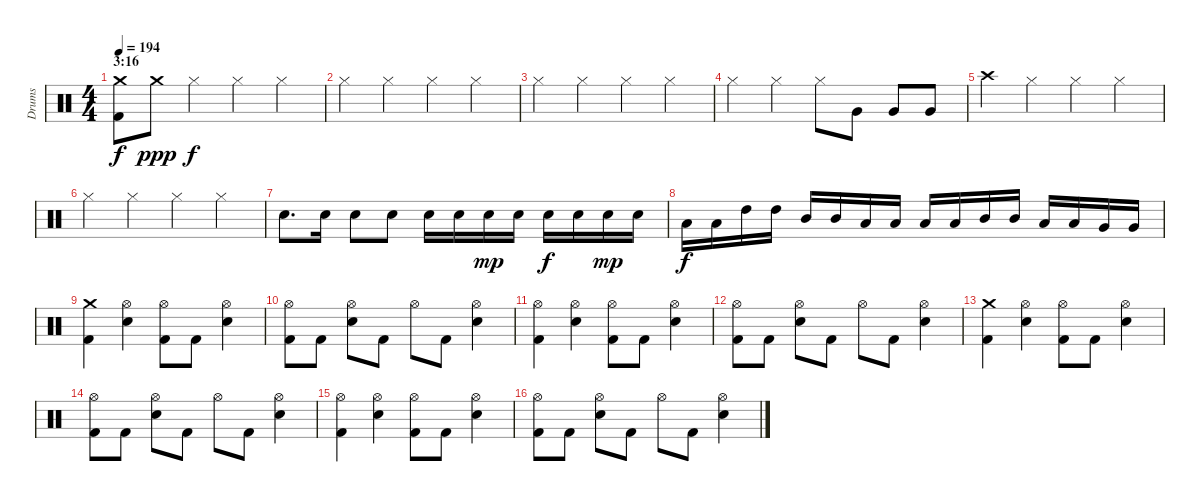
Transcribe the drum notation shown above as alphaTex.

\track ("Drums" "Drums") {instrument percussion}
\staff {score}
\articulation defaults
\ts (4 4)
\section ("" "3:16")
\tempo 194
\clef neutral
\ks c
("Crash medium (hit)" "Kick (hit) 2").8{dy f} "Crash medium (hit)".8{dy ppp} "Hi-Hat (closed)".4{dy f} "Hi-Hat (closed)".4 "Hi-Hat (closed)".4 |
"Hi-Hat (closed)".4 "Hi-Hat (closed)".4 "Hi-Hat (closed)".4 "Hi-Hat (closed)".4 |
"Hi-Hat (closed)".4 "Hi-Hat (closed)".4 "Hi-Hat (closed)".4 "Hi-Hat (closed)".4 |
"Hi-Hat (closed)".4 "Hi-Hat (closed)".4 "Hi-Hat (closed)".8 "Very Low Tom (hit)".8 "Very Low Tom (hit)".8 "Very Low Tom (hit)".8 |
"Crash high (hit)".4 "Hi-Hat (closed)".4 "Hi-Hat (closed)".4 "Hi-Hat (closed)".4 |
"Hi-Hat (closed)".4 "Hi-Hat (closed)".4 "Hi-Hat (closed)".4 "Hi-Hat (closed)".4 |
"Snare (hit) 2".8{d} "Snare (hit) 2".16 "Snare (hit) 2".8 "Snare (hit) 2".8 "Snare (hit) 2".16 "Snare (hit) 2".16 "Snare (hit) 2".16{dy mp} "Snare (hit) 2".16 "Snare (hit) 2".16{dy f} "Snare (hit) 2".16 "Snare (hit) 2".16{dy mp} "Snare (hit) 2".16 |
"Low Tom (hit)".16{dy f} "Low Tom (hit)".16 "High Tom (hit)".16 "High Tom (hit)".16 "Mid Tom (hit)".16 "Mid Tom (hit)".16 "Low Tom (hit)".16 "Low Tom (hit)".16 "Low Tom (hit)".16 "Low Tom (hit)".16 "Mid Tom (hit)".16 "Mid Tom (hit)".16 "Low Tom (hit)".16 "Low Tom (hit)".16 "Very Low Tom (hit)".16 "Very Low Tom (hit)".16 |
("Crash medium (hit)" "Kick (hit) 2").4 ("Hi-Hat (open)" "Snare (hit) 2").4 ("Hi-Hat (open)" "Kick (hit) 2").8 "Kick (hit) 2".8 ("Hi-Hat (open)" "Snare (hit) 2").4 |
("Hi-Hat (open)" "Kick (hit) 2").8 "Kick (hit) 2".8 ("Hi-Hat (open)" "Snare (hit) 2").8 "Kick (hit) 2".8 "Hi-Hat (open)".8 "Kick (hit) 2".8 ("Hi-Hat (open)" "Snare (hit) 2").4 |
("Hi-Hat (open)" "Kick (hit) 2").4 ("Hi-Hat (open)" "Snare (hit) 2").4 ("Hi-Hat (open)" "Kick (hit) 2").8 "Kick (hit) 2".8 ("Hi-Hat (open)" "Snare (hit) 2").4 |
("Hi-Hat (open)" "Kick (hit) 2").8 "Kick (hit) 2".8 ("Hi-Hat (open)" "Snare (hit) 2").8 "Kick (hit) 2".8 "Hi-Hat (open)".8 "Kick (hit) 2".8 ("Hi-Hat (open)" "Snare (hit) 2").4 |
("Crash medium (hit)" "Kick (hit) 2").4 ("Hi-Hat (open)" "Snare (hit) 2").4 ("Hi-Hat (open)" "Kick (hit) 2").8 "Kick (hit) 2".8 ("Hi-Hat (open)" "Snare (hit) 2").4 |
("Hi-Hat (open)" "Kick (hit) 2").8 "Kick (hit) 2".8 ("Hi-Hat (open)" "Snare (hit) 2").8 "Kick (hit) 2".8 "Hi-Hat (open)".8 "Kick (hit) 2".8 ("Hi-Hat (open)" "Snare (hit) 2").4 |
("Hi-Hat (open)" "Kick (hit) 2").4 ("Hi-Hat (open)" "Snare (hit) 2").4 ("Hi-Hat (open)" "Kick (hit) 2").8 "Kick (hit) 2".8 ("Hi-Hat (open)" "Snare (hit) 2").4 |
("Hi-Hat (open)" "Kick (hit) 2").8 "Kick (hit) 2".8 ("Hi-Hat (open)" "Snare (hit) 2").8 "Kick (hit) 2".8 "Hi-Hat (open)".8 "Kick (hit) 2".8 ("Hi-Hat (open)" "Snare (hit) 2").4
